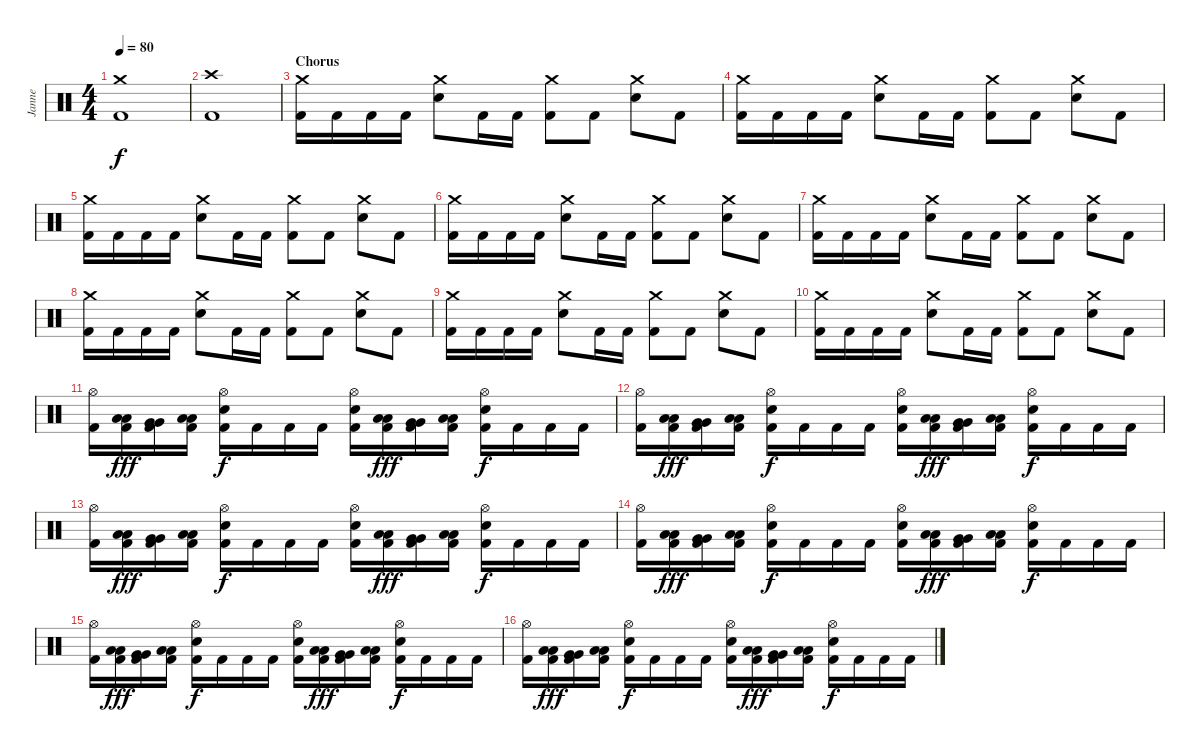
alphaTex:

\track ("Janne" "Janne") {instrument percussion}
\staff {score}
\articulation defaults
\ts (4 4)
\tempo 80
\clef neutral
\ks c
("Crash medium (hit)" "Kick (hit) 2").1{dy f} |
("Crash high (hit)" "Kick (hit) 2").1 |
\section ("" "Chorus")
("Crash medium (hit)" "Kick (hit) 2").16 "Kick (hit) 2".16 "Kick (hit) 2".16 "Kick (hit) 2".16 ("Crash medium (hit)" "Electric Snare (hit)").8 "Kick (hit) 2".16 "Kick (hit) 2".16 ("Crash medium (hit)" "Kick (hit) 2").8 "Kick (hit) 2".8 ("Crash medium (hit)" "Electric Snare (hit)").8 "Kick (hit) 2".8 |
("Crash medium (hit)" "Kick (hit) 2").16 "Kick (hit) 2".16 "Kick (hit) 2".16 "Kick (hit) 2".16 ("Crash medium (hit)" "Electric Snare (hit)").8 "Kick (hit) 2".16 "Kick (hit) 2".16 ("Crash medium (hit)" "Kick (hit) 2").8 "Kick (hit) 2".8 ("Crash medium (hit)" "Electric Snare (hit)").8 "Kick (hit) 2".8 |
("Crash medium (hit)" "Kick (hit) 2").16 "Kick (hit) 2".16 "Kick (hit) 2".16 "Kick (hit) 2".16 ("Crash medium (hit)" "Electric Snare (hit)").8 "Kick (hit) 2".16 "Kick (hit) 2".16 ("Crash medium (hit)" "Kick (hit) 2").8 "Kick (hit) 2".8 ("Crash medium (hit)" "Electric Snare (hit)").8 "Kick (hit) 2".8 |
("Crash medium (hit)" "Kick (hit) 2").16 "Kick (hit) 2".16 "Kick (hit) 2".16 "Kick (hit) 2".16 ("Crash medium (hit)" "Electric Snare (hit)").8 "Kick (hit) 2".16 "Kick (hit) 2".16 ("Crash medium (hit)" "Kick (hit) 2").8 "Kick (hit) 2".8 ("Crash medium (hit)" "Electric Snare (hit)").8 "Kick (hit) 2".8 |
("Crash medium (hit)" "Kick (hit) 2").16 "Kick (hit) 2".16 "Kick (hit) 2".16 "Kick (hit) 2".16 ("Crash medium (hit)" "Electric Snare (hit)").8 "Kick (hit) 2".16 "Kick (hit) 2".16 ("Crash medium (hit)" "Kick (hit) 2").8 "Kick (hit) 2".8 ("Crash medium (hit)" "Electric Snare (hit)").8 "Kick (hit) 2".8 |
("Crash medium (hit)" "Kick (hit) 2").16 "Kick (hit) 2".16 "Kick (hit) 2".16 "Kick (hit) 2".16 ("Crash medium (hit)" "Electric Snare (hit)").8 "Kick (hit) 2".16 "Kick (hit) 2".16 ("Crash medium (hit)" "Kick (hit) 2").8 "Kick (hit) 2".8 ("Crash medium (hit)" "Electric Snare (hit)").8 "Kick (hit) 2".8 |
("Crash medium (hit)" "Kick (hit) 2").16 "Kick (hit) 2".16 "Kick (hit) 2".16 "Kick (hit) 2".16 ("Crash medium (hit)" "Electric Snare (hit)").8 "Kick (hit) 2".16 "Kick (hit) 2".16 ("Crash medium (hit)" "Kick (hit) 2").8 "Kick (hit) 2".8 ("Crash medium (hit)" "Electric Snare (hit)").8 "Kick (hit) 2".8 |
("Crash medium (hit)" "Kick (hit) 2").16 "Kick (hit) 2".16 "Kick (hit) 2".16 "Kick (hit) 2".16 ("Crash medium (hit)" "Electric Snare (hit)").8 "Kick (hit) 2".16 "Kick (hit) 2".16 ("Crash medium (hit)" "Kick (hit) 2").8 "Kick (hit) 2".8 ("Crash medium (hit)" "Electric Snare (hit)").8 "Kick (hit) 2".8 |
("Hi-Hat (open)" "Kick (hit) 2").16 ("Low Tom (hit)" "Low Tom (hit)" "Kick (hit) 2").16{dy fff} ("Very Low Tom (hit)" "Very Low Tom (hit)" "Kick (hit) 2").16 ("Low Floor Tom (hit)" "Low Floor Tom (hit)" "Kick (hit) 2").16 ("Hi-Hat (open)" "Electric Snare (hit)" "Kick (hit) 2").16{dy f} "Kick (hit) 2".16 "Kick (hit) 2".16 "Kick (hit) 2".16 ("Hi-Hat (open)" "Electric Snare (hit)" "Kick (hit) 2").16 ("Low Tom (hit)" "Low Tom (hit)" "Kick (hit) 2").16{dy fff} ("Very Low Tom (hit)" "Very Low Tom (hit)" "Kick (hit) 2").16 ("Low Floor Tom (hit)" "Low Floor Tom (hit)" "Kick (hit) 2").16 ("Hi-Hat (open)" "Electric Snare (hit)" "Kick (hit) 2").16{dy f} "Kick (hit) 2".16 "Kick (hit) 2".16 "Kick (hit) 2".16 |
("Hi-Hat (open)" "Kick (hit) 2").16 ("Low Tom (hit)" "Low Tom (hit)" "Kick (hit) 2").16{dy fff} ("Very Low Tom (hit)" "Very Low Tom (hit)" "Kick (hit) 2").16 ("Low Floor Tom (hit)" "Low Floor Tom (hit)" "Kick (hit) 2").16 ("Hi-Hat (open)" "Electric Snare (hit)" "Kick (hit) 2").16{dy f} "Kick (hit) 2".16 "Kick (hit) 2".16 "Kick (hit) 2".16 ("Hi-Hat (open)" "Electric Snare (hit)" "Kick (hit) 2").16 ("Low Tom (hit)" "Low Tom (hit)" "Kick (hit) 2").16{dy fff} ("Very Low Tom (hit)" "Very Low Tom (hit)" "Kick (hit) 2").16 ("Low Floor Tom (hit)" "Low Floor Tom (hit)" "Kick (hit) 2").16 ("Hi-Hat (open)" "Electric Snare (hit)" "Kick (hit) 2").16{dy f} "Kick (hit) 2".16 "Kick (hit) 2".16 "Kick (hit) 2".16 |
("Hi-Hat (open)" "Kick (hit) 2").16 ("Low Tom (hit)" "Low Tom (hit)" "Kick (hit) 2").16{dy fff} ("Very Low Tom (hit)" "Very Low Tom (hit)" "Kick (hit) 2").16 ("Low Floor Tom (hit)" "Low Floor Tom (hit)" "Kick (hit) 2").16 ("Hi-Hat (open)" "Electric Snare (hit)" "Kick (hit) 2").16{dy f} "Kick (hit) 2".16 "Kick (hit) 2".16 "Kick (hit) 2".16 ("Hi-Hat (open)" "Electric Snare (hit)" "Kick (hit) 2").16 ("Low Tom (hit)" "Low Tom (hit)" "Kick (hit) 2").16{dy fff} ("Very Low Tom (hit)" "Very Low Tom (hit)" "Kick (hit) 2").16 ("Low Floor Tom (hit)" "Low Floor Tom (hit)" "Kick (hit) 2").16 ("Hi-Hat (open)" "Electric Snare (hit)" "Kick (hit) 2").16{dy f} "Kick (hit) 2".16 "Kick (hit) 2".16 "Kick (hit) 2".16 |
("Hi-Hat (open)" "Kick (hit) 2").16 ("Low Tom (hit)" "Low Tom (hit)" "Kick (hit) 2").16{dy fff} ("Very Low Tom (hit)" "Very Low Tom (hit)" "Kick (hit) 2").16 ("Low Floor Tom (hit)" "Low Floor Tom (hit)" "Kick (hit) 2").16 ("Hi-Hat (open)" "Electric Snare (hit)" "Kick (hit) 2").16{dy f} "Kick (hit) 2".16 "Kick (hit) 2".16 "Kick (hit) 2".16 ("Hi-Hat (open)" "Electric Snare (hit)" "Kick (hit) 2").16 ("Low Tom (hit)" "Low Tom (hit)" "Kick (hit) 2").16{dy fff} ("Very Low Tom (hit)" "Very Low Tom (hit)" "Kick (hit) 2").16 ("Low Floor Tom (hit)" "Low Floor Tom (hit)" "Kick (hit) 2").16 ("Hi-Hat (open)" "Electric Snare (hit)" "Kick (hit) 2").16{dy f} "Kick (hit) 2".16 "Kick (hit) 2".16 "Kick (hit) 2".16 |
("Hi-Hat (open)" "Kick (hit) 2").16 ("Low Tom (hit)" "Low Tom (hit)" "Kick (hit) 2").16{dy fff} ("Very Low Tom (hit)" "Very Low Tom (hit)" "Kick (hit) 2").16 ("Low Floor Tom (hit)" "Low Floor Tom (hit)" "Kick (hit) 2").16 ("Hi-Hat (open)" "Electric Snare (hit)" "Kick (hit) 2").16{dy f} "Kick (hit) 2".16 "Kick (hit) 2".16 "Kick (hit) 2".16 ("Hi-Hat (open)" "Electric Snare (hit)" "Kick (hit) 2").16 ("Low Tom (hit)" "Low Tom (hit)" "Kick (hit) 2").16{dy fff} ("Very Low Tom (hit)" "Very Low Tom (hit)" "Kick (hit) 2").16 ("Low Floor Tom (hit)" "Low Floor Tom (hit)" "Kick (hit) 2").16 ("Hi-Hat (open)" "Electric Snare (hit)" "Kick (hit) 2").16{dy f} "Kick (hit) 2".16 "Kick (hit) 2".16 "Kick (hit) 2".16 |
("Hi-Hat (open)" "Kick (hit) 2").16 ("Low Tom (hit)" "Low Tom (hit)" "Kick (hit) 2").16{dy fff} ("Very Low Tom (hit)" "Very Low Tom (hit)" "Kick (hit) 2").16 ("Low Floor Tom (hit)" "Low Floor Tom (hit)" "Kick (hit) 2").16 ("Hi-Hat (open)" "Electric Snare (hit)" "Kick (hit) 2").16{dy f} "Kick (hit) 2".16 "Kick (hit) 2".16 "Kick (hit) 2".16 ("Hi-Hat (open)" "Electric Snare (hit)" "Kick (hit) 2").16 ("Low Tom (hit)" "Low Tom (hit)" "Kick (hit) 2").16{dy fff} ("Very Low Tom (hit)" "Very Low Tom (hit)" "Kick (hit) 2").16 ("Low Floor Tom (hit)" "Low Floor Tom (hit)" "Kick (hit) 2").16 ("Hi-Hat (open)" "Electric Snare (hit)" "Kick (hit) 2").16{dy f} "Kick (hit) 2".16 "Kick (hit) 2".16 "Kick (hit) 2".16
